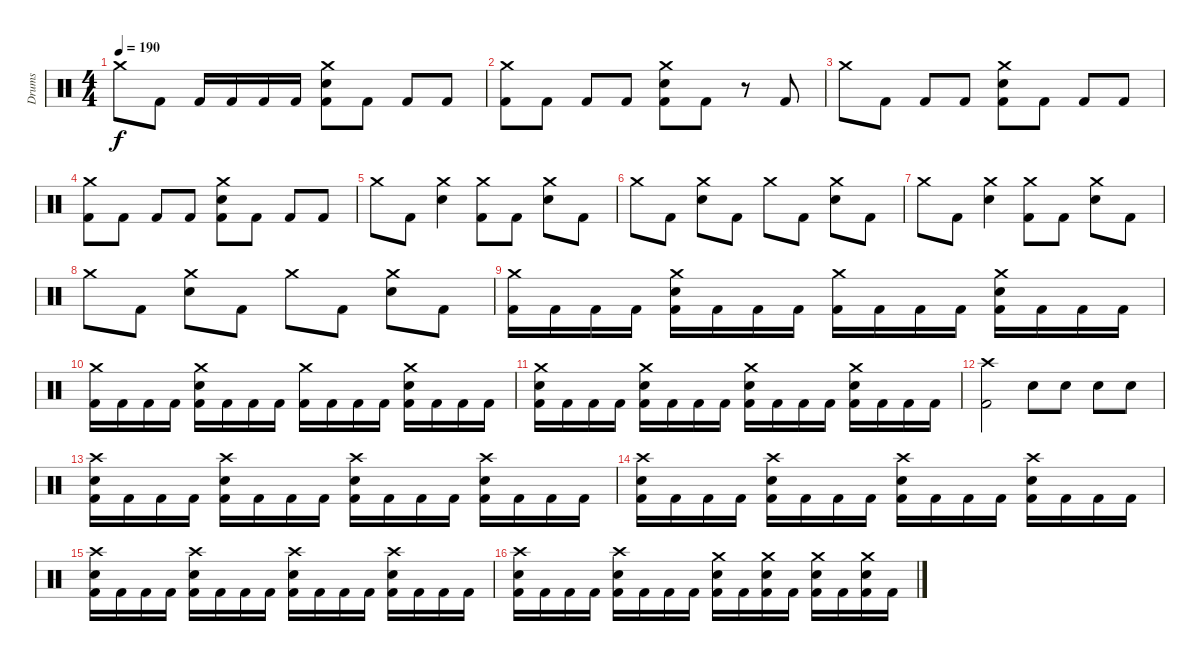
\track ("Drums" "Drums") {instrument percussion}
\staff {score}
\articulation defaults
\ts (4 4)
\tempo 190
\clef neutral
\ks c "Crash medium (hit)".8{dy f} "Kick (hit) 2".8 "Kick (hit) 2".16 "Kick (hit) 2".16 "Kick (hit) 2".16 "Kick (hit) 2".16
("Crash medium (hit)" "Snare (hit) 2" "Kick (hit) 2").8 "Kick (hit) 2".8 "Kick (hit) 2".8 "Kick (hit) 2".8 |
("Crash medium (hit)" "Kick (hit) 2").8 "Kick (hit) 2".8 "Kick (hit) 2".8 "Kick (hit) 2".8 ("Crash medium (hit)" "Snare (hit) 2" "Kick (hit) 2").8 "Kick (hit) 2".8 r.8 "Kick (hit) 2".8 |
"Crash medium (hit)".8 "Kick (hit) 2".8 "Kick (hit) 2".8 "Kick (hit) 2".8 ("Crash medium (hit)" "Snare (hit) 2" "Kick (hit) 2").8 "Kick (hit) 2".8 "Kick (hit) 2".8 "Kick (hit) 2".8 |
("Crash medium (hit)" "Kick (hit) 2").8 "Kick (hit) 2".8 "Kick (hit) 2".8 "Kick (hit) 2".8 ("Crash medium (hit)" "Snare (hit) 2" "Kick (hit) 2").8 "Kick (hit) 2".8 "Kick (hit) 2".8 "Kick (hit) 2".8 |
"Crash medium (hit)".8 "Kick (hit) 2".8 ("Crash medium (hit)" "Snare (hit) 2").4 ("Crash medium (hit)" "Kick (hit) 2").8 "Kick (hit) 2".8 ("Crash medium (hit)" "Snare (hit) 2").8 "Kick (hit) 2".8 |
"Crash medium (hit)".8 "Kick (hit) 2".8 ("Crash medium (hit)" "Snare (hit) 2").8 "Kick (hit) 2".8 "Crash medium (hit)".8 "Kick (hit) 2".8 ("Crash medium (hit)" "Snare (hit) 2").8 "Kick (hit) 2".8 |
"Crash medium (hit)".8 "Kick (hit) 2".8 ("Crash medium (hit)" "Snare (hit) 2").4 ("Crash medium (hit)" "Kick (hit) 2").8 "Kick (hit) 2".8 ("Crash medium (hit)" "Snare (hit) 2").8 "Kick (hit) 2".8 |
"Crash medium (hit)".8 "Kick (hit) 2".8 ("Crash medium (hit)" "Snare (hit) 2").8 "Kick (hit) 2".8 "Crash medium (hit)".8 "Kick (hit) 2".8 ("Crash medium (hit)" "Snare (hit) 2").8 "Kick (hit) 2".8 |
("Crash medium (hit)" "Kick (hit) 2").16 "Kick (hit) 2".16 "Kick (hit) 2".16 "Kick (hit) 2".16 ("Crash medium (hit)" "Snare (hit) 2" "Kick (hit) 2").16 "Kick (hit) 2".16 "Kick (hit) 2".16 "Kick (hit) 2".16 ("Crash medium (hit)" "Kick (hit) 2").16 "Kick (hit) 2".16 "Kick (hit) 2".16 "Kick (hit) 2".16 ("Crash medium (hit)" "Snare (hit) 2" "Kick (hit) 2").16 "Kick (hit) 2".16 "Kick (hit) 2".16 "Kick (hit) 2".16 |
("Crash medium (hit)" "Kick (hit) 2").16 "Kick (hit) 2".16 "Kick (hit) 2".16 "Kick (hit) 2".16 ("Crash medium (hit)" "Snare (hit) 2" "Kick (hit) 2").16 "Kick (hit) 2".16 "Kick (hit) 2".16 "Kick (hit) 2".16 ("Crash medium (hit)" "Kick (hit) 2").16 "Kick (hit) 2".16 "Kick (hit) 2".16 "Kick (hit) 2".16 ("Crash medium (hit)" "Snare (hit) 2" "Kick (hit) 2").16 "Kick (hit) 2".16 "Kick (hit) 2".16 "Kick (hit) 2".16 |
("Crash medium (hit)" "Snare (hit) 2" "Kick (hit) 2").16 "Kick (hit) 2".16 "Kick (hit) 2".16 "Kick (hit) 2".16 ("Crash medium (hit)" "Snare (hit) 2" "Kick (hit) 2").16 "Kick (hit) 2".16 "Kick (hit) 2".16 "Kick (hit) 2".16 ("Crash medium (hit)" "Snare (hit) 2" "Kick (hit) 2").16 "Kick (hit) 2".16 "Kick (hit) 2".16 "Kick (hit) 2".16 ("Crash medium (hit)" "Snare (hit) 2" "Kick (hit) 2").16 "Kick (hit) 2".16 "Kick (hit) 2".16 "Kick (hit) 2".16 |
("Crash high (hit)" "Kick (hit) 2").2 "Snare (hit) 2".8 "Snare (hit) 2".8 "Snare (hit) 2".8 "Snare (hit) 2".8 |
("Crash high (hit)" "Snare (hit) 2" "Kick (hit) 2").16 "Kick (hit) 2".16 "Kick (hit) 2".16 "Kick (hit) 2".16 ("Crash high (hit)" "Snare (hit) 2" "Kick (hit) 2").16 "Kick (hit) 2".16 "Kick (hit) 2".16 "Kick (hit) 2".16 ("Crash high (hit)" "Snare (hit) 2" "Kick (hit) 2").16 "Kick (hit) 2".16 "Kick (hit) 2".16 "Kick (hit) 2".16 ("Crash high (hit)" "Snare (hit) 2" "Kick (hit) 2").16 "Kick (hit) 2".16 "Kick (hit) 2".16 "Kick (hit) 2".16 |
("Crash high (hit)" "Snare (hit) 2" "Kick (hit) 2").16 "Kick (hit) 2".16 "Kick (hit) 2".16 "Kick (hit) 2".16 ("Crash high (hit)" "Snare (hit) 2" "Kick (hit) 2").16 "Kick (hit) 2".16 "Kick (hit) 2".16 "Kick (hit) 2".16 ("Crash high (hit)" "Snare (hit) 2" "Kick (hit) 2").16 "Kick (hit) 2".16 "Kick (hit) 2".16 "Kick (hit) 2".16 ("Crash high (hit)" "Snare (hit) 2" "Kick (hit) 2").16 "Kick (hit) 2".16 "Kick (hit) 2".16 "Kick (hit) 2".16 |
("Crash high (hit)" "Snare (hit) 2" "Kick (hit) 2").16 "Kick (hit) 2".16 "Kick (hit) 2".16 "Kick (hit) 2".16 ("Crash high (hit)" "Snare (hit) 2" "Kick (hit) 2").16 "Kick (hit) 2".16 "Kick (hit) 2".16 "Kick (hit) 2".16 ("Crash high (hit)" "Snare (hit) 2" "Kick (hit) 2").16 "Kick (hit) 2".16 "Kick (hit) 2".16 "Kick (hit) 2".16 ("Crash high (hit)" "Snare (hit) 2" "Kick (hit) 2").16 "Kick (hit) 2".16 "Kick (hit) 2".16 "Kick (hit) 2".16 |
("Crash high (hit)" "Snare (hit) 2" "Kick (hit) 2").16 "Kick (hit) 2".16 "Kick (hit) 2".16 "Kick (hit) 2".16 ("Crash high (hit)" "Snare (hit) 2" "Kick (hit) 2").16 "Kick (hit) 2".16 "Kick (hit) 2".16 "Kick (hit) 2".16 ("Crash medium (hit)" "Snare (hit) 2" "Kick (hit) 2").16 "Kick (hit) 2".16 ("Crash medium (hit)" "Snare (hit) 2" "Kick (hit) 2").16 "Kick (hit) 2".16 ("Crash medium (hit)" "Snare (hit) 2" "Kick (hit) 2").16 "Kick (hit) 2".16 ("Crash medium (hit)" "Snare (hit) 2" "Kick (hit) 2").16 "Kick (hit) 2".16
